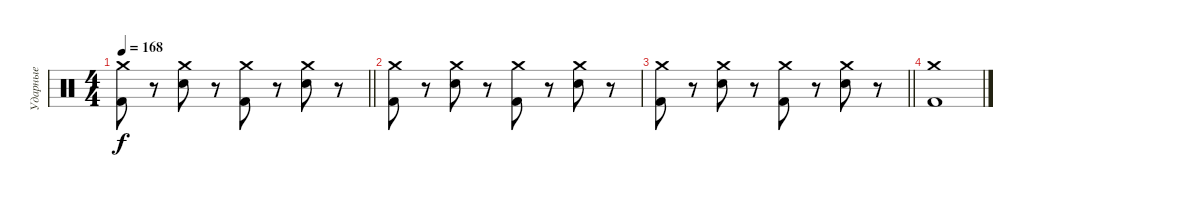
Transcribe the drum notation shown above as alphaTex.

\track ("Ударные" "Ударные") {instrument percussion}
\staff {score}
\articulation defaults
\ts (4 4)
\tempo 168
\clef neutral
\barLineRight lightlight
\ks c
("Crash medium (hit)" "Kick (hit) 2").8{dy f} r.8 ("Crash medium (hit)" "Snare (hit) 2").8 r.8 ("Crash medium (hit)" "Kick (hit) 2").8 r.8 ("Crash medium (hit)" "Snare (hit) 2").8 r.8 |
("Crash medium (hit)" "Kick (hit) 2").8 r.8 ("Crash medium (hit)" "Snare (hit) 2").8 r.8 ("Crash medium (hit)" "Kick (hit) 2").8 r.8 ("Crash medium (hit)" "Snare (hit) 2").8 r.8 |
\barLineRight lightlight
("Crash medium (hit)" "Kick (hit) 2").8 r.8 ("Crash medium (hit)" "Snare (hit) 2").8 r.8 ("Crash medium (hit)" "Kick (hit) 2").8 r.8 ("Crash medium (hit)" "Snare (hit) 2").8 r.8 |
("Crash medium (hit)" "Kick (hit) 2").1
